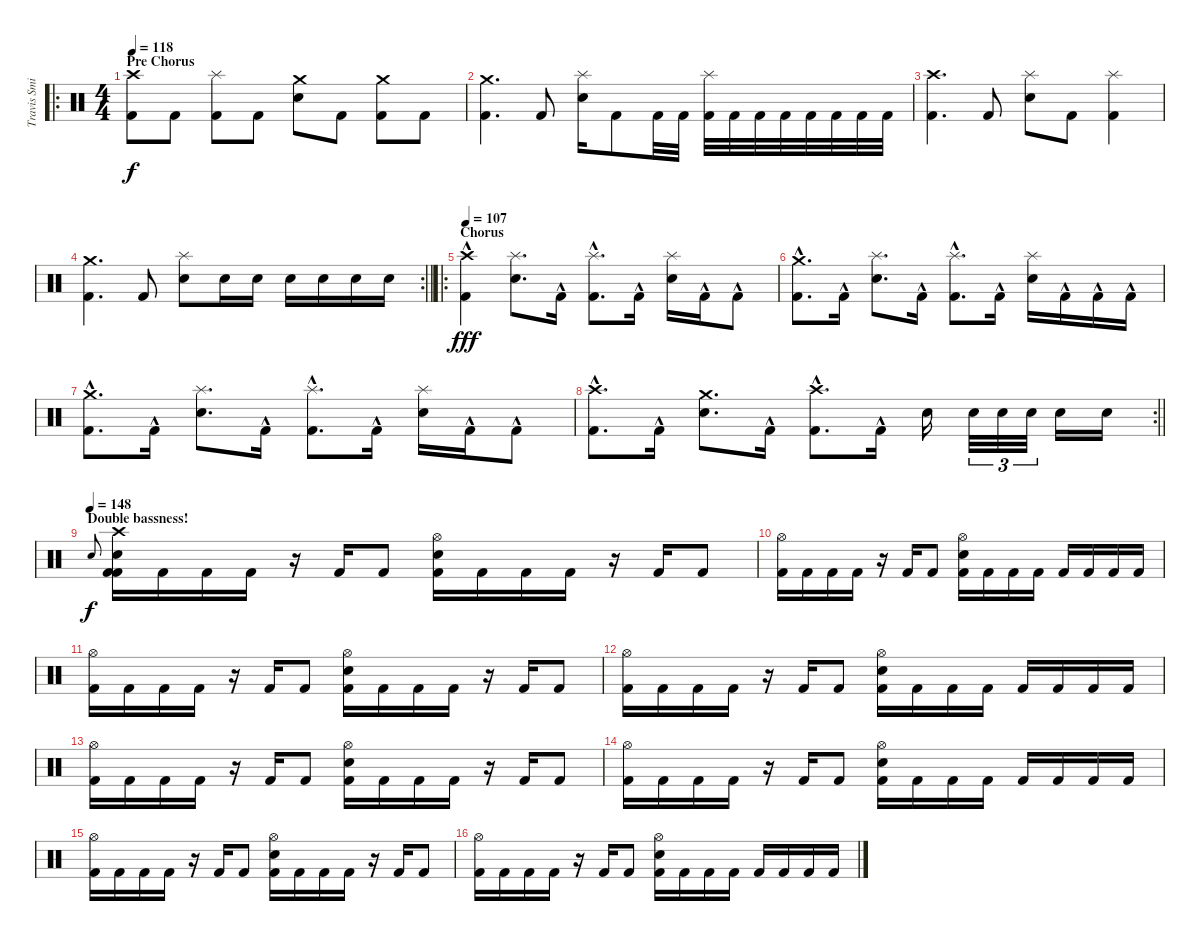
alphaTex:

\track ("Travis Smith" "Travis Smi") {instrument percussion}
\staff {score}
\articulation defaults
\ro
\ts (4 4)
\section ("" "Pre Chorus")
\tempo 118
\clef neutral
\ks c
("Crash high (hit)" "Kick (hit) 2").8{dy f} "Kick (hit) 2".8 ("Splash (hit)" "Kick (hit) 2").8 "Kick (hit) 2".8 ("Crash medium (hit)" "Snare (hit) 2").8 "Kick (hit) 2".8 ("Crash medium (hit)" "Kick (hit) 2").8 "Kick (hit) 2".8 |
("Crash medium (hit)" "Kick (hit) 2").4{d} "Kick (hit) 2".8 ("Splash (hit)" "Snare (hit) 2").16 "Kick (hit) 2".8 "Kick (hit) 2".32 "Kick (hit) 2".32 ("Splash (hit)" "Kick (hit) 2").32 "Kick (hit) 2".32 "Kick (hit) 2".32 "Kick (hit) 2".32 "Kick (hit) 2".32 "Kick (hit) 2".32 "Kick (hit) 2".32 "Kick (hit) 2".32 |
("Crash high (hit)" "Kick (hit) 2").4{d} "Kick (hit) 2".8 ("Splash (hit)" "Snare (hit) 2").8 "Kick (hit) 2".8 ("Splash (hit)" "Kick (hit) 2").4 |
\rc 2
\barLineRight lightlight
("Crash medium (hit)" "Kick (hit) 2").4{d} "Kick (hit) 2".8 ("Splash (hit)" "Snare (hit) 2").8 "Snare (hit) 2".16 "Snare (hit) 2".16 "Snare (hit) 2".16 "Snare (hit) 2".16 "Snare (hit) 2".16 "Snare (hit) 2".16 |
\ro
\section ("" "Chorus")
\tempo 107
("Crash high (hit)" "Kick (hit) 2"{hac}).4{dy fff} ("Splash (hit)" "Snare (hit) 2").8{d} "Kick (hit) 2"{hac}.16 ("Splash (hit)" "Kick (hit) 2"{hac}).8{d} "Kick (hit) 2"{hac}.16 ("Splash (hit)" "Snare (hit) 2").16 "Kick (hit) 2"{hac}.16 "Kick (hit) 2"{hac}.8 |
("Crash medium (hit)" "Kick (hit) 2"{hac}).8{d} "Kick (hit) 2"{hac}.16 ("Splash (hit)" "Snare (hit) 2").8{d} "Kick (hit) 2"{hac}.16 ("Splash (hit)" "Kick (hit) 2"{hac}).8{d} "Kick (hit) 2"{hac}.16 ("Splash (hit)" "Snare (hit) 2").16 "Kick (hit) 2"{hac}.16 "Kick (hit) 2"{hac}.16 "Kick (hit) 2"{hac}.16 |
("Crash medium (hit)" "Kick (hit) 2"{hac}).8{d} "Kick (hit) 2"{hac}.16 ("Splash (hit)" "Snare (hit) 2").8{d} "Kick (hit) 2"{hac}.16 ("Splash (hit)" "Kick (hit) 2"{hac}).8{d} "Kick (hit) 2"{hac}.16 ("Splash (hit)" "Snare (hit) 2").16 "Kick (hit) 2"{hac}.16 "Kick (hit) 2"{hac}.8 |
\rc 2
\barLineRight lightlight
("Crash high (hit)" "Kick (hit) 2"{hac}).8{d} "Kick (hit) 2"{hac}.16 ("Crash medium (hit)" "Snare (hit) 2").8{d} "Kick (hit) 2"{hac}.16 ("Crash high (hit)" "Kick (hit) 2"{hac}).8{d} "Kick (hit) 2"{hac}.16 "Snare (hit) 2".16{beam splitsecondary} "Snare (hit) 2".32{tu (3 2)} "Snare (hit) 2".32{tu (3 2)} "Snare (hit) 2".32{tu (3 2) beam splitsecondary} "Snare (hit) 2".16 "Snare (hit) 2".16 |
\section ("" "Double bassness!")
\tempo (148)
"Snare (hit) 2".8{gr onbeat dy f} ("Crash high (hit)" "Kick (hit) 2" "Snare (hit) 2" "Kick (hit) 2").16 "Kick (hit) 2".16 "Kick (hit) 2".16 "Kick (hit) 2".16 r.16 "Kick (hit) 2".16 "Kick (hit) 2".8 ("Hi-Hat (open)" "Snare (hit) 2" "Kick (hit) 2").16 "Kick (hit) 2".16 "Kick (hit) 2".16 "Kick (hit) 2".16 r.16 "Kick (hit) 2".16 "Kick (hit) 2".8 |
("Hi-Hat (open)" "Kick (hit) 2").16 "Kick (hit) 2".16 "Kick (hit) 2".16 "Kick (hit) 2".16 r.16 "Kick (hit) 2".16 "Kick (hit) 2".8 ("Hi-Hat (open)" "Snare (hit) 2" "Kick (hit) 2").16 "Kick (hit) 2".16 "Kick (hit) 2".16 "Kick (hit) 2".16 "Kick (hit) 2".16 "Kick (hit) 2".16 "Kick (hit) 2".16 "Kick (hit) 2".16 |
("Hi-Hat (open)" "Kick (hit) 2").16 "Kick (hit) 2".16 "Kick (hit) 2".16 "Kick (hit) 2".16 r.16 "Kick (hit) 2".16 "Kick (hit) 2".8 ("Hi-Hat (open)" "Snare (hit) 2" "Kick (hit) 2").16 "Kick (hit) 2".16 "Kick (hit) 2".16 "Kick (hit) 2".16 r.16 "Kick (hit) 2".16 "Kick (hit) 2".8 |
("Hi-Hat (open)" "Kick (hit) 2").16 "Kick (hit) 2".16 "Kick (hit) 2".16 "Kick (hit) 2".16 r.16 "Kick (hit) 2".16 "Kick (hit) 2".8 ("Hi-Hat (open)" "Snare (hit) 2" "Kick (hit) 2").16 "Kick (hit) 2".16 "Kick (hit) 2".16 "Kick (hit) 2".16 "Kick (hit) 2".16 "Kick (hit) 2".16 "Kick (hit) 2".16 "Kick (hit) 2".16 |
("Hi-Hat (open)" "Kick (hit) 2").16 "Kick (hit) 2".16 "Kick (hit) 2".16 "Kick (hit) 2".16 r.16 "Kick (hit) 2".16 "Kick (hit) 2".8 ("Hi-Hat (open)" "Snare (hit) 2" "Kick (hit) 2").16 "Kick (hit) 2".16 "Kick (hit) 2".16 "Kick (hit) 2".16 r.16 "Kick (hit) 2".16 "Kick (hit) 2".8 |
("Hi-Hat (open)" "Kick (hit) 2").16 "Kick (hit) 2".16 "Kick (hit) 2".16 "Kick (hit) 2".16 r.16 "Kick (hit) 2".16 "Kick (hit) 2".8 ("Hi-Hat (open)" "Snare (hit) 2" "Kick (hit) 2").16 "Kick (hit) 2".16 "Kick (hit) 2".16 "Kick (hit) 2".16 "Kick (hit) 2".16 "Kick (hit) 2".16 "Kick (hit) 2".16 "Kick (hit) 2".16 |
("Hi-Hat (open)" "Kick (hit) 2").16 "Kick (hit) 2".16 "Kick (hit) 2".16 "Kick (hit) 2".16 r.16 "Kick (hit) 2".16 "Kick (hit) 2".8 ("Hi-Hat (open)" "Snare (hit) 2" "Kick (hit) 2").16 "Kick (hit) 2".16 "Kick (hit) 2".16 "Kick (hit) 2".16 r.16 "Kick (hit) 2".16 "Kick (hit) 2".8 |
("Hi-Hat (open)" "Kick (hit) 2").16 "Kick (hit) 2".16 "Kick (hit) 2".16 "Kick (hit) 2".16 r.16 "Kick (hit) 2".16 "Kick (hit) 2".8 ("Hi-Hat (open)" "Snare (hit) 2" "Kick (hit) 2").16 "Kick (hit) 2".16 "Kick (hit) 2".16 "Kick (hit) 2".16 "Kick (hit) 2".16 "Kick (hit) 2".16 "Kick (hit) 2".16 "Kick (hit) 2".16
